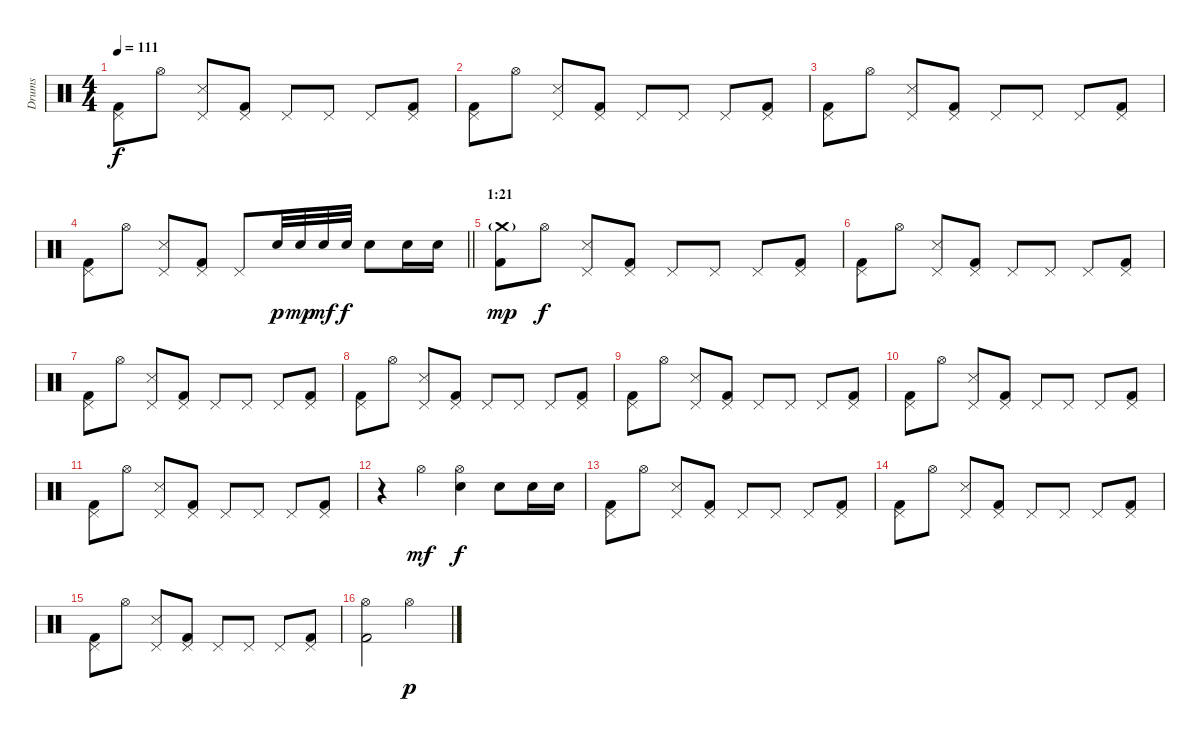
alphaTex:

\track ("Drums" "Drums") {instrument percussion}
\staff {score}
\articulation defaults
\ts (4 4)
\tempo 111
\clef neutral
\ks c
("Pedal Hi-Hat (hit)" "Kick (hit) 2").8{dy f} "Hi-Hat (open)".8 ("Pedal Hi-Hat (hit)" "Snare (side stick) 3").8 ("Pedal Hi-Hat (hit)" "Kick (hit) 2").8 "Pedal Hi-Hat (hit)".8 "Pedal Hi-Hat (hit)".8 "Pedal Hi-Hat (hit)".8 ("Pedal Hi-Hat (hit)" "Kick (hit) 2").8 |
("Pedal Hi-Hat (hit)" "Kick (hit) 2").8 "Hi-Hat (open)".8 ("Pedal Hi-Hat (hit)" "Snare (side stick) 3").8 ("Pedal Hi-Hat (hit)" "Kick (hit) 2").8 "Pedal Hi-Hat (hit)".8 "Pedal Hi-Hat (hit)".8 "Pedal Hi-Hat (hit)".8 ("Pedal Hi-Hat (hit)" "Kick (hit) 2").8 |
("Pedal Hi-Hat (hit)" "Kick (hit) 2").8 "Hi-Hat (open)".8 ("Pedal Hi-Hat (hit)" "Snare (side stick) 3").8 ("Pedal Hi-Hat (hit)" "Kick (hit) 2").8 "Pedal Hi-Hat (hit)".8 "Pedal Hi-Hat (hit)".8 "Pedal Hi-Hat (hit)".8 ("Pedal Hi-Hat (hit)" "Kick (hit) 2").8 |
\barLineRight lightlight
("Pedal Hi-Hat (hit)" "Kick (hit) 2").8 "Hi-Hat (open)".8 ("Pedal Hi-Hat (hit)" "Snare (side stick) 3").8 ("Pedal Hi-Hat (hit)" "Kick (hit) 2").8 "Pedal Hi-Hat (hit)".8 "Snare (hit) 2".32{dy p} "Snare (hit) 2".32{dy mp} "Snare (hit) 2".32{dy mf} "Snare (hit) 2".32{dy f} "Snare (hit) 2".8 "Snare (hit) 2".16 "Snare (hit) 2".16 |
\section ("" "1:21")
("Crash medium (hit)"{g} "Kick (hit) 2").8{dy mp volume 10} "Hi-Hat (open)".8{dy f} ("Pedal Hi-Hat (hit)" "Snare (side stick) 3").8 ("Pedal Hi-Hat (hit)" "Kick (hit) 2").8 "Pedal Hi-Hat (hit)".8 "Pedal Hi-Hat (hit)".8 "Pedal Hi-Hat (hit)".8 ("Pedal Hi-Hat (hit)" "Kick (hit) 2").8 |
("Pedal Hi-Hat (hit)" "Kick (hit) 2").8 "Hi-Hat (open)".8 ("Pedal Hi-Hat (hit)" "Snare (side stick) 3").8 ("Pedal Hi-Hat (hit)" "Kick (hit) 2").8 "Pedal Hi-Hat (hit)".8 "Pedal Hi-Hat (hit)".8 "Pedal Hi-Hat (hit)".8 ("Pedal Hi-Hat (hit)" "Kick (hit) 2").8 |
("Pedal Hi-Hat (hit)" "Kick (hit) 2").8 "Hi-Hat (open)".8 ("Pedal Hi-Hat (hit)" "Snare (side stick) 3").8 ("Pedal Hi-Hat (hit)" "Kick (hit) 2").8 "Pedal Hi-Hat (hit)".8 "Pedal Hi-Hat (hit)".8 "Pedal Hi-Hat (hit)".8 ("Pedal Hi-Hat (hit)" "Kick (hit) 2").8 |
("Pedal Hi-Hat (hit)" "Kick (hit) 2").8 "Hi-Hat (open)".8 ("Pedal Hi-Hat (hit)" "Snare (side stick) 3").8 ("Pedal Hi-Hat (hit)" "Kick (hit) 2").8 "Pedal Hi-Hat (hit)".8 "Pedal Hi-Hat (hit)".8 "Pedal Hi-Hat (hit)".8 ("Pedal Hi-Hat (hit)" "Kick (hit) 2").8 |
("Pedal Hi-Hat (hit)" "Kick (hit) 2").8 "Hi-Hat (open)".8 ("Pedal Hi-Hat (hit)" "Snare (side stick) 3").8 ("Pedal Hi-Hat (hit)" "Kick (hit) 2").8 "Pedal Hi-Hat (hit)".8 "Pedal Hi-Hat (hit)".8 "Pedal Hi-Hat (hit)".8 ("Pedal Hi-Hat (hit)" "Kick (hit) 2").8 |
("Pedal Hi-Hat (hit)" "Kick (hit) 2").8 "Hi-Hat (open)".8 ("Pedal Hi-Hat (hit)" "Snare (side stick) 3").8 ("Pedal Hi-Hat (hit)" "Kick (hit) 2").8 "Pedal Hi-Hat (hit)".8 "Pedal Hi-Hat (hit)".8 "Pedal Hi-Hat (hit)".8 ("Pedal Hi-Hat (hit)" "Kick (hit) 2").8 |
("Pedal Hi-Hat (hit)" "Kick (hit) 2").8 "Hi-Hat (open)".8 ("Pedal Hi-Hat (hit)" "Snare (side stick) 3").8 ("Pedal Hi-Hat (hit)" "Kick (hit) 2").8 "Pedal Hi-Hat (hit)".8 "Pedal Hi-Hat (hit)".8 "Pedal Hi-Hat (hit)".8 ("Pedal Hi-Hat (hit)" "Kick (hit) 2").8 |
r.4 "Hi-Hat (open)".4{dy mf} ("Hi-Hat (open)" "Snare (hit) 2").4{dy f} "Snare (hit) 2".8 "Snare (hit) 2".16 "Snare (hit) 2".16 |
("Pedal Hi-Hat (hit)" "Kick (hit) 2").8 "Hi-Hat (open)".8 ("Pedal Hi-Hat (hit)" "Snare (side stick) 3").8 ("Pedal Hi-Hat (hit)" "Kick (hit) 2").8 "Pedal Hi-Hat (hit)".8 "Pedal Hi-Hat (hit)".8 "Pedal Hi-Hat (hit)".8 ("Pedal Hi-Hat (hit)" "Kick (hit) 2").8 |
("Pedal Hi-Hat (hit)" "Kick (hit) 2").8 "Hi-Hat (open)".8 ("Pedal Hi-Hat (hit)" "Snare (side stick) 3").8 ("Pedal Hi-Hat (hit)" "Kick (hit) 2").8 "Pedal Hi-Hat (hit)".8 "Pedal Hi-Hat (hit)".8 "Pedal Hi-Hat (hit)".8 ("Pedal Hi-Hat (hit)" "Kick (hit) 2").8 |
("Pedal Hi-Hat (hit)" "Kick (hit) 2").8 "Hi-Hat (open)".8 ("Pedal Hi-Hat (hit)" "Snare (side stick) 3").8 ("Pedal Hi-Hat (hit)" "Kick (hit) 2").8 "Pedal Hi-Hat (hit)".8 "Pedal Hi-Hat (hit)".8 "Pedal Hi-Hat (hit)".8 ("Pedal Hi-Hat (hit)" "Kick (hit) 2").8 |
("Hi-Hat (open)" "Kick (hit) 2").2 "Hi-Hat (open)".2{dy p}
